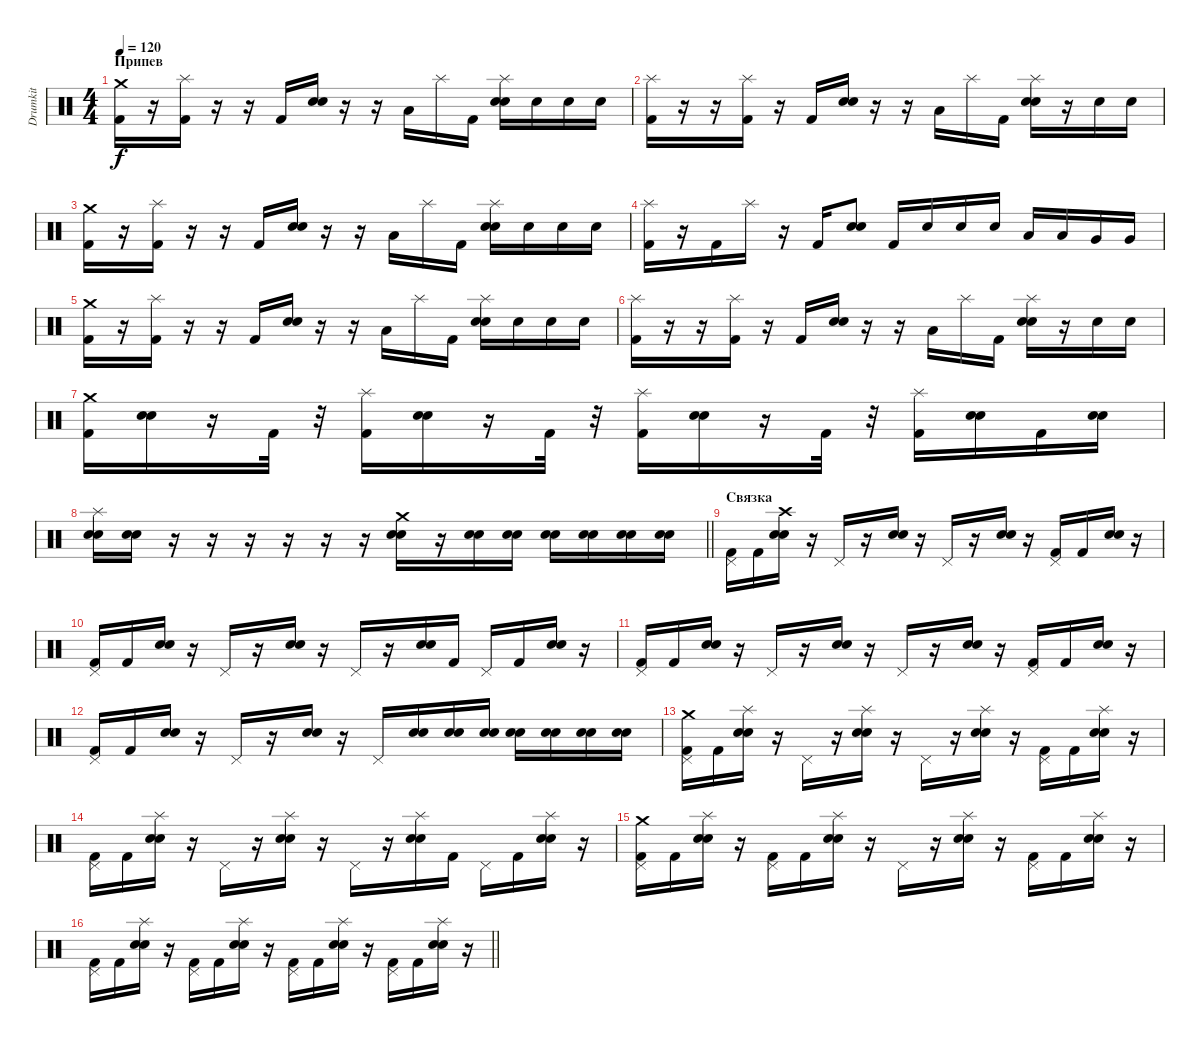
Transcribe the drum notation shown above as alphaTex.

\track ("Drumkit" "Drumkit") {instrument percussion}
\staff {score}
\articulation defaults
\ts (4 4)
\section ("" "Припев")
\tempo 120
\clef neutral
\ks c
("Crash medium (hit)" "Kick (hit) 2").16{dy f} r.16 ("Splash (hit)" "Kick (hit) 2").16 r.16 r.16 "Kick (hit) 2".16 ("Electric Snare (hit)" "Snare (hit) 2").16 r.16 r.16 "Low Tom (hit)".16 "Splash (hit)".16 "Kick (hit) 2".16 ("Splash (hit)" "Electric Snare (hit)" "Snare (hit) 2").16 "Electric Snare (hit)".16 "Electric Snare (hit)".16 "Electric Snare (hit)".16 |
("Splash (hit)" "Kick (hit) 2").16 r.16 r.16 ("Splash (hit)" "Kick (hit) 2").16 r.16 "Kick (hit) 2".16 ("Electric Snare (hit)" "Snare (hit) 2").16 r.16 r.16 "Low Tom (hit)".16 "Splash (hit)".16 "Kick (hit) 2".16 ("Splash (hit)" "Electric Snare (hit)" "Snare (hit) 2").16 r.16 "Electric Snare (hit)".16 "Electric Snare (hit)".16 |
("Crash medium (hit)" "Kick (hit) 2").16 r.16 ("Splash (hit)" "Kick (hit) 2").16 r.16 r.16 "Kick (hit) 2".16 ("Electric Snare (hit)" "Snare (hit) 2").16 r.16 r.16 "Low Tom (hit)".16 "Splash (hit)".16 "Kick (hit) 2".16 ("Splash (hit)" "Electric Snare (hit)" "Snare (hit) 2").16 "Electric Snare (hit)".16 "Electric Snare (hit)".16 "Electric Snare (hit)".16 |
("Splash (hit)" "Kick (hit) 2").16 r.16 "Kick (hit) 2".16 "Splash (hit)".16 r.16 "Kick (hit) 2".16 ("Electric Snare (hit)" "Snare (hit) 2").8 "Kick (hit) 2".16 "Electric Snare (hit)".16 "Electric Snare (hit)".16 "Electric Snare (hit)".16 "Low Tom (hit)".16 "Low Tom (hit)".16 "Very Low Tom (hit)".16 "Very Low Tom (hit)".16 |
("Crash medium (hit)" "Kick (hit) 2").16 r.16 ("Splash (hit)" "Kick (hit) 2").16 r.16 r.16 "Kick (hit) 2".16 ("Electric Snare (hit)" "Snare (hit) 2").16 r.16 r.16 "Low Tom (hit)".16 "Splash (hit)".16 "Kick (hit) 2".16 ("Splash (hit)" "Electric Snare (hit)" "Snare (hit) 2").16 "Electric Snare (hit)".16 "Electric Snare (hit)".16 "Electric Snare (hit)".16 |
("Splash (hit)" "Kick (hit) 2").16 r.16 r.16 ("Splash (hit)" "Kick (hit) 2").16 r.16 "Kick (hit) 2".16 ("Electric Snare (hit)" "Snare (hit) 2").16 r.16 r.16 "Low Tom (hit)".16 "Splash (hit)".16 "Kick (hit) 2".16 ("Splash (hit)" "Electric Snare (hit)" "Snare (hit) 2").16 r.16 "Electric Snare (hit)".16 "Electric Snare (hit)".16 |
("Crash medium (hit)" "Kick (hit) 2").16 ("Electric Snare (hit)" "Snare (hit) 2").16 r.16 "Kick (hit) 2".32 r.32 ("Splash (hit)" "Kick (hit) 2").16 ("Electric Snare (hit)" "Snare (hit) 2").16 r.16 "Kick (hit) 2".32 r.32 ("Splash (hit)" "Kick (hit) 2").16 ("Electric Snare (hit)" "Snare (hit) 2").16 r.16 "Kick (hit) 2".32 r.32 ("Splash (hit)" "Kick (hit) 2").16 ("Electric Snare (hit)" "Snare (hit) 2").16 "Kick (hit) 2".16 ("Electric Snare (hit)" "Snare (hit) 2").16 |
\barLineRight lightlight
("Splash (hit)" "Electric Snare (hit)" "Snare (hit) 2").16 ("Electric Snare (hit)" "Snare (hit) 2").16 r.16 r.16 r.16 r.16 r.16 r.16 ("Crash medium (hit)" "Electric Snare (hit)" "Snare (hit) 2").16 r.16 ("Electric Snare (hit)" "Snare (hit) 2").16 ("Electric Snare (hit)" "Snare (hit) 2").16 ("Electric Snare (hit)" "Snare (hit) 2").16 ("Electric Snare (hit)" "Snare (hit) 2").16 ("Electric Snare (hit)" "Snare (hit) 2").16 ("Electric Snare (hit)" "Snare (hit) 2").16 |
\section ("" "Связка")
("Pedal Hi-Hat (hit)" "Kick (hit) 2").16 "Kick (hit) 2".16 ("Crash high (hit)" "Electric Snare (hit)" "Snare (hit) 2").16 r.16 "Pedal Hi-Hat (hit)".16 r.16 ("Electric Snare (hit)" "Snare (hit) 2").16 r.16 "Pedal Hi-Hat (hit)".16 r.16 ("Electric Snare (hit)" "Snare (hit) 2").16 r.16 ("Pedal Hi-Hat (hit)" "Kick (hit) 2").16 "Kick (hit) 2".16 ("Electric Snare (hit)" "Snare (hit) 2").16 r.16 |
("Pedal Hi-Hat (hit)" "Kick (hit) 2").16 "Kick (hit) 2".16 ("Electric Snare (hit)" "Snare (hit) 2").16 r.16 "Pedal Hi-Hat (hit)".16 r.16 ("Electric Snare (hit)" "Snare (hit) 2").16 r.16 "Pedal Hi-Hat (hit)".16 r.16 ("Electric Snare (hit)" "Snare (hit) 2").16 "Kick (hit) 2".16 "Pedal Hi-Hat (hit)".16 "Kick (hit) 2".16 ("Electric Snare (hit)" "Snare (hit) 2").16 r.16 |
("Pedal Hi-Hat (hit)" "Kick (hit) 2").16 "Kick (hit) 2".16 ("Electric Snare (hit)" "Snare (hit) 2").16 r.16 "Pedal Hi-Hat (hit)".16 r.16 ("Electric Snare (hit)" "Snare (hit) 2").16 r.16 "Pedal Hi-Hat (hit)".16 r.16 ("Electric Snare (hit)" "Snare (hit) 2").16 r.16 ("Pedal Hi-Hat (hit)" "Kick (hit) 2").16 "Kick (hit) 2".16 ("Electric Snare (hit)" "Snare (hit) 2").16 r.16 |
("Pedal Hi-Hat (hit)" "Kick (hit) 2").16 "Kick (hit) 2".16 ("Electric Snare (hit)" "Snare (hit) 2").16 r.16 "Pedal Hi-Hat (hit)".16 r.16 ("Electric Snare (hit)" "Snare (hit) 2").16 r.16 "Pedal Hi-Hat (hit)".16 ("Electric Snare (hit)" "Snare (hit) 2").16 ("Electric Snare (hit)" "Snare (hit) 2").16 ("Electric Snare (hit)" "Snare (hit) 2").16 ("Electric Snare (hit)" "Snare (hit) 2").16 ("Electric Snare (hit)" "Snare (hit) 2").16 ("Electric Snare (hit)" "Snare (hit) 2").16 ("Electric Snare (hit)" "Snare (hit) 2").16 |
("Crash medium (hit)" "Pedal Hi-Hat (hit)" "Kick (hit) 2").16 "Kick (hit) 2".16 ("Splash (hit)" "Electric Snare (hit)" "Snare (hit) 2").16 r.16 "Pedal Hi-Hat (hit)".16 r.16 ("Splash (hit)" "Electric Snare (hit)" "Snare (hit) 2").16 r.16 "Pedal Hi-Hat (hit)".16 r.16 ("Splash (hit)" "Electric Snare (hit)" "Snare (hit) 2").16 r.16 ("Pedal Hi-Hat (hit)" "Kick (hit) 2").16 "Kick (hit) 2".16 ("Splash (hit)" "Electric Snare (hit)" "Snare (hit) 2").16 r.16 |
("Pedal Hi-Hat (hit)" "Kick (hit) 2").16 "Kick (hit) 2".16 ("Splash (hit)" "Electric Snare (hit)" "Snare (hit) 2").16 r.16 "Pedal Hi-Hat (hit)".16 r.16 ("Splash (hit)" "Electric Snare (hit)" "Snare (hit) 2").16 r.16 "Pedal Hi-Hat (hit)".16 r.16 ("Splash (hit)" "Electric Snare (hit)" "Snare (hit) 2").16 "Kick (hit) 2".16 "Pedal Hi-Hat (hit)".16 "Kick (hit) 2".16 ("Splash (hit)" "Electric Snare (hit)" "Snare (hit) 2").16 r.16 |
("Crash medium (hit)" "Pedal Hi-Hat (hit)" "Kick (hit) 2").16 "Kick (hit) 2".16 ("Splash (hit)" "Electric Snare (hit)" "Snare (hit) 2").16 r.16 ("Pedal Hi-Hat (hit)" "Kick (hit) 2").16 "Kick (hit) 2".16 ("Splash (hit)" "Electric Snare (hit)" "Snare (hit) 2").16 r.16 "Pedal Hi-Hat (hit)".16 r.16 ("Splash (hit)" "Electric Snare (hit)" "Snare (hit) 2").16 r.16 ("Pedal Hi-Hat (hit)" "Kick (hit) 2").16 "Kick (hit) 2".16 ("Splash (hit)" "Electric Snare (hit)" "Snare (hit) 2").16 r.16 |
\barLineRight lightlight
("Pedal Hi-Hat (hit)" "Kick (hit) 2").16 "Kick (hit) 2".16 ("Splash (hit)" "Electric Snare (hit)" "Snare (hit) 2").16 r.16 ("Pedal Hi-Hat (hit)" "Kick (hit) 2").16 "Kick (hit) 2".16 ("Splash (hit)" "Electric Snare (hit)" "Snare (hit) 2").16 r.16 ("Pedal Hi-Hat (hit)" "Kick (hit) 2").16 "Kick (hit) 2".16 ("Splash (hit)" "Electric Snare (hit)" "Snare (hit) 2").16 r.16 ("Pedal Hi-Hat (hit)" "Kick (hit) 2").16 "Kick (hit) 2".16 ("Splash (hit)" "Electric Snare (hit)" "Snare (hit) 2").16 r.16
